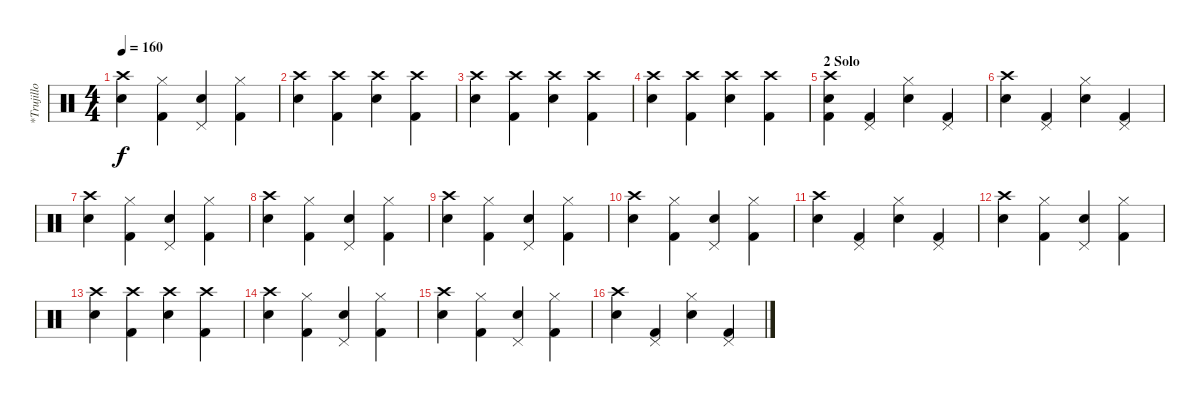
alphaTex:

\track ("*Trujillo" "*Trujillo") {instrument percussion}
\staff {score}
\articulation defaults
\ts (4 4)
\tempo 160
\clef neutral
\ks c
("Crash high (hit)" "Electric Snare (hit)").4{dy f} ("Hi-Hat (closed)" "Kick (hit) 2").4 ("Pedal Hi-Hat (hit)" "Electric Snare (hit)").4 ("Hi-Hat (closed)" "Kick (hit) 2").4 |
("Crash high (hit)" "Electric Snare (hit)").4 ("Crash high (hit)" "Kick (hit) 2").4 ("Crash high (hit)" "Electric Snare (hit)").4 ("Crash high (hit)" "Kick (hit) 2").4 |
("Crash high (hit)" "Electric Snare (hit)").4 ("Crash high (hit)" "Kick (hit) 2").4 ("Crash high (hit)" "Electric Snare (hit)").4 ("Crash high (hit)" "Kick (hit) 2").4 |
("Crash high (hit)" "Electric Snare (hit)").4 ("Crash high (hit)" "Kick (hit) 2").4 ("Crash high (hit)" "Electric Snare (hit)").4 ("Crash high (hit)" "Kick (hit) 2").4 |
\section ("" "2 Solo")
("Crash high (hit)" "Electric Snare (hit)" "Kick (hit) 2").4 ("Pedal Hi-Hat (hit)" "Kick (hit) 2").4 ("Hi-Hat (closed)" "Electric Snare (hit)").4 ("Pedal Hi-Hat (hit)" "Kick (hit) 2").4 |
("Crash high (hit)" "Electric Snare (hit)").4 ("Pedal Hi-Hat (hit)" "Kick (hit) 2").4 ("Hi-Hat (closed)" "Electric Snare (hit)").4 ("Pedal Hi-Hat (hit)" "Kick (hit) 2").4 |
("Crash high (hit)" "Electric Snare (hit)").4 ("Hi-Hat (closed)" "Kick (hit) 2").4 ("Pedal Hi-Hat (hit)" "Electric Snare (hit)").4 ("Hi-Hat (closed)" "Kick (hit) 2").4 |
("Crash high (hit)" "Electric Snare (hit)").4 ("Hi-Hat (closed)" "Kick (hit) 2").4 ("Pedal Hi-Hat (hit)" "Electric Snare (hit)").4 ("Hi-Hat (closed)" "Kick (hit) 2").4 |
("Crash high (hit)" "Electric Snare (hit)").4 ("Hi-Hat (closed)" "Kick (hit) 2").4 ("Pedal Hi-Hat (hit)" "Electric Snare (hit)").4 ("Hi-Hat (closed)" "Kick (hit) 2").4 |
("Crash high (hit)" "Electric Snare (hit)").4 ("Hi-Hat (closed)" "Kick (hit) 2").4 ("Pedal Hi-Hat (hit)" "Electric Snare (hit)").4 ("Hi-Hat (closed)" "Kick (hit) 2").4 |
("Crash high (hit)" "Electric Snare (hit)").4 ("Pedal Hi-Hat (hit)" "Kick (hit) 2").4 ("Hi-Hat (closed)" "Electric Snare (hit)").4 ("Pedal Hi-Hat (hit)" "Kick (hit) 2").4 |
("Crash high (hit)" "Electric Snare (hit)").4 ("Hi-Hat (closed)" "Kick (hit) 2").4 ("Pedal Hi-Hat (hit)" "Electric Snare (hit)").4 ("Hi-Hat (closed)" "Kick (hit) 2").4 |
("Crash high (hit)" "Electric Snare (hit)").4 ("Crash high (hit)" "Kick (hit) 2").4 ("Crash high (hit)" "Electric Snare (hit)").4 ("Crash high (hit)" "Kick (hit) 2").4 |
("Crash high (hit)" "Electric Snare (hit)").4 ("Hi-Hat (closed)" "Kick (hit) 2").4 ("Pedal Hi-Hat (hit)" "Electric Snare (hit)").4 ("Hi-Hat (closed)" "Kick (hit) 2").4 |
("Crash high (hit)" "Electric Snare (hit)").4 ("Hi-Hat (closed)" "Kick (hit) 2").4 ("Pedal Hi-Hat (hit)" "Electric Snare (hit)").4 ("Hi-Hat (closed)" "Kick (hit) 2").4 |
("Crash high (hit)" "Electric Snare (hit)").4 ("Pedal Hi-Hat (hit)" "Kick (hit) 2").4 ("Hi-Hat (closed)" "Electric Snare (hit)").4 ("Pedal Hi-Hat (hit)" "Kick (hit) 2").4
